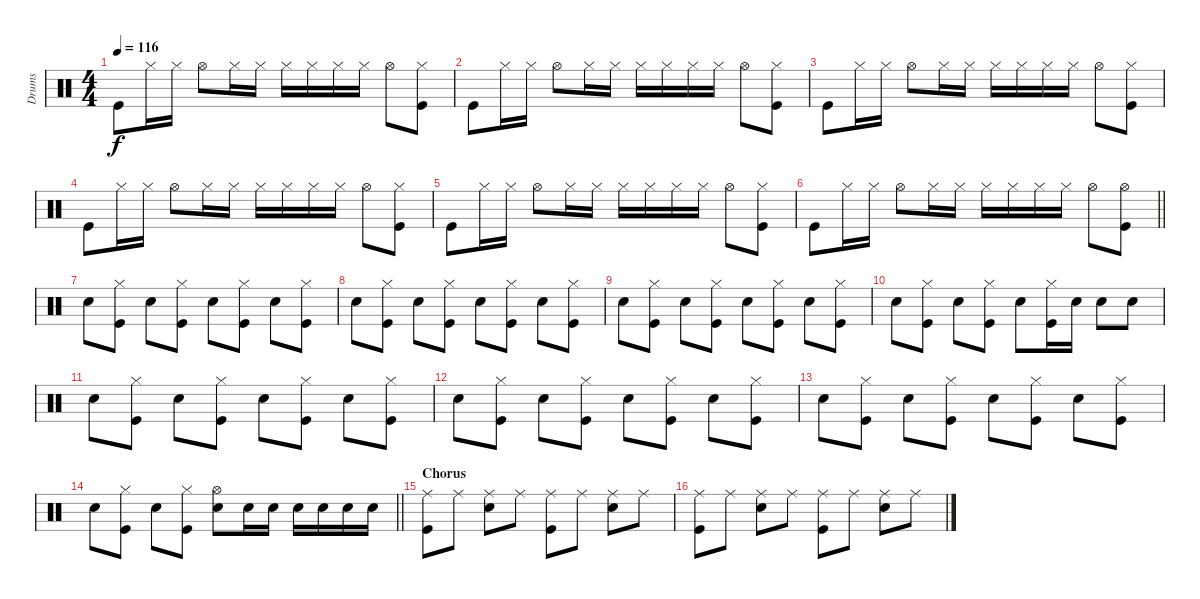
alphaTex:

\track ("Drums" "Drums") {instrument percussion}
\staff {score}
\articulation defaults
\ts (4 4)
\tempo 116
\clef neutral
\ks c "Kick (hit)".8{dy f} "Hi-Hat (closed)".16 "Hi-Hat (closed)".16 "Hi-Hat (open)".8 "Hi-Hat (closed)".16 "Hi-Hat (closed)".16 "Hi-Hat (closed)".16 "Hi-Hat (closed)".16 "Hi-Hat (closed)".16 "Hi-Hat (closed)".16 "Hi-Hat (open)".8
("Hi-Hat (closed)" "Kick (hit)").8 |
"Kick (hit)".8 "Hi-Hat (closed)".16 "Hi-Hat (closed)".16 "Hi-Hat (open)".8 "Hi-Hat (closed)".16 "Hi-Hat (closed)".16 "Hi-Hat (closed)".16 "Hi-Hat (closed)".16 "Hi-Hat (closed)".16 "Hi-Hat (closed)".16 "Hi-Hat (open)".8 ("Hi-Hat (closed)" "Kick (hit)").8 |
"Kick (hit)".8 "Hi-Hat (closed)".16 "Hi-Hat (closed)".16 "Hi-Hat (open)".8 "Hi-Hat (closed)".16 "Hi-Hat (closed)".16 "Hi-Hat (closed)".16 "Hi-Hat (closed)".16 "Hi-Hat (closed)".16 "Hi-Hat (closed)".16 "Hi-Hat (open)".8 ("Hi-Hat (closed)" "Kick (hit)").8 |
"Kick (hit)".8 "Hi-Hat (closed)".16 "Hi-Hat (closed)".16 "Hi-Hat (open)".8 "Hi-Hat (closed)".16 "Hi-Hat (closed)".16 "Hi-Hat (closed)".16 "Hi-Hat (closed)".16 "Hi-Hat (closed)".16 "Hi-Hat (closed)".16 "Hi-Hat (open)".8 ("Hi-Hat (closed)" "Kick (hit)").8 |
"Kick (hit)".8 "Hi-Hat (closed)".16 "Hi-Hat (closed)".16 "Hi-Hat (open)".8 "Hi-Hat (closed)".16 "Hi-Hat (closed)".16 "Hi-Hat (closed)".16 "Hi-Hat (closed)".16 "Hi-Hat (closed)".16 "Hi-Hat (closed)".16 "Hi-Hat (open)".8 ("Hi-Hat (closed)" "Kick (hit)").8 |
\barLineRight lightlight "Kick (hit)".8 "Hi-Hat (closed)".16 "Hi-Hat (closed)".16 "Hi-Hat (open)".8 "Hi-Hat (closed)".16 "Hi-Hat (closed)".16 "Hi-Hat (closed)".16 "Hi-Hat (closed)".16 "Hi-Hat (closed)".16 "Hi-Hat (closed)".16 "Hi-Hat (open)".8
("Hi-Hat (open)" "Kick (hit)").8 |
"Snare (hit) 2".8 ("Hi-Hat (closed)" "Kick (hit)").8 "Snare (hit) 2".8 ("Hi-Hat (closed)" "Kick (hit)").8 "Snare (hit) 2".8 ("Hi-Hat (closed)" "Kick (hit)").8 "Snare (hit) 2".8 ("Hi-Hat (closed)" "Kick (hit)").8 |
"Snare (hit) 2".8 ("Hi-Hat (closed)" "Kick (hit)").8 "Snare (hit) 2".8 ("Hi-Hat (closed)" "Kick (hit)").8 "Snare (hit) 2".8 ("Hi-Hat (closed)" "Kick (hit)").8 "Snare (hit) 2".8 ("Hi-Hat (closed)" "Kick (hit)").8 |
"Snare (hit) 2".8 ("Hi-Hat (closed)" "Kick (hit)").8 "Snare (hit) 2".8 ("Hi-Hat (closed)" "Kick (hit)").8 "Snare (hit) 2".8 ("Hi-Hat (closed)" "Kick (hit)").8 "Snare (hit) 2".8 ("Hi-Hat (closed)" "Kick (hit)").8 |
"Snare (hit) 2".8 ("Hi-Hat (closed)" "Kick (hit)").8 "Snare (hit) 2".8 ("Hi-Hat (closed)" "Kick (hit)").8 "Snare (hit) 2".8 ("Hi-Hat (closed)" "Kick (hit)").16 "Snare (hit) 2".16 "Snare (hit) 2".8 "Snare (hit) 2".8 |
"Snare (hit) 2".8 ("Hi-Hat (closed)" "Kick (hit)").8 "Snare (hit) 2".8 ("Hi-Hat (closed)" "Kick (hit)").8 "Snare (hit) 2".8 ("Hi-Hat (closed)" "Kick (hit)").8 "Snare (hit) 2".8 ("Hi-Hat (closed)" "Kick (hit)").8 |
"Snare (hit) 2".8 ("Hi-Hat (closed)" "Kick (hit)").8 "Snare (hit) 2".8 ("Hi-Hat (closed)" "Kick (hit)").8 "Snare (hit) 2".8 ("Hi-Hat (closed)" "Kick (hit)").8 "Snare (hit) 2".8 ("Hi-Hat (closed)" "Kick (hit)").8 |
"Snare (hit) 2".8 ("Hi-Hat (closed)" "Kick (hit)").8 "Snare (hit) 2".8 ("Hi-Hat (closed)" "Kick (hit)").8 "Snare (hit) 2".8 ("Hi-Hat (closed)" "Kick (hit)").8 "Snare (hit) 2".8 ("Hi-Hat (closed)" "Kick (hit)").8 |
\barLineRight lightlight "Snare (hit) 2".8
("Hi-Hat (closed)" "Kick (hit)").8 "Snare (hit) 2".8 ("Hi-Hat (closed)" "Kick (hit)").8 ("Hi-Hat (open)" "Snare (hit) 2").8 "Snare (hit) 2".16 "Snare (hit) 2".16 "Snare (hit) 2".16 "Snare (hit) 2".16 "Snare (hit) 2".16 "Snare (hit) 2".16 |
\section ("" "Chorus")
("Ride (middle)" "Kick (hit)").8 "Ride (middle)".8 ("Ride (middle)" "Snare (hit) 2").8 "Ride (middle)".8 ("Ride (middle)" "Kick (hit)").8 "Ride (middle)".8 ("Ride (middle)" "Snare (hit) 2").8 "Ride (middle)".8 |
("Ride (middle)" "Kick (hit)").8 "Ride (middle)".8 ("Ride (middle)" "Snare (hit) 2").8 "Ride (middle)".8 ("Ride (middle)" "Kick (hit)").8 "Ride (middle)".8 ("Ride (middle)" "Snare (hit) 2").8 "Ride (middle)".8
